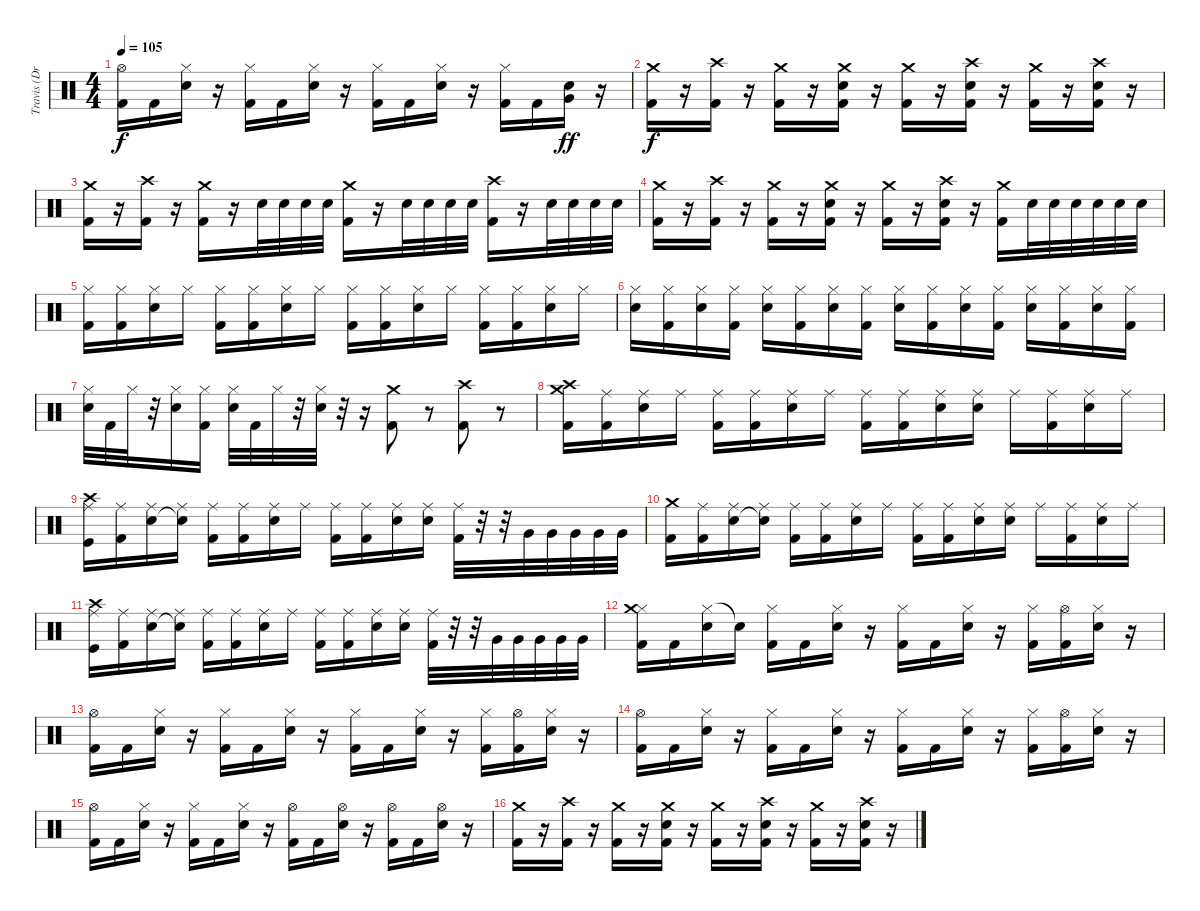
\track ("Travis (Drums)" "Travis (Dr") {instrument percussion}
\staff {score}
\articulation defaults
\ts (4 4)
\tempo 105
\clef neutral
\ks c
("Hi-Hat (open)" "Kick (hit) 2").16{dy f} "Kick (hit) 2".16 ("Hi-Hat (closed)" "Electric Snare (hit)").16 r.16 ("Hi-Hat (closed)" "Kick (hit) 2").16 "Kick (hit) 2".16 ("Hi-Hat (closed)" "Electric Snare (hit)").16 r.16 ("Hi-Hat (closed)" "Kick (hit) 2").16 "Kick (hit) 2".16 ("Hi-Hat (closed)" "Electric Snare (hit)").16 r.16 ("Hi-Hat (closed)" "Kick (hit) 2").16 "Kick (hit) 2".16 ("Electric Snare (hit)" "Very Low Tom (hit)").16{dy ff} r.16 |
("Crash medium (hit)" "Kick (hit) 2").16{dy f} r.16 ("Crash high (hit)" "Kick (hit) 2").16 r.16 ("Crash medium (hit)" "Kick (hit) 2").16 r.16 ("Electric Snare (hit)" "Kick (hit) 2" "Crash medium (hit)").16 r.16 ("Crash medium (hit)" "Kick (hit) 2").16 r.16 ("Electric Snare (hit)" "Kick (hit) 2" "Crash high (hit)").16 r.16 ("Crash medium (hit)" "Kick (hit) 2").16 r.16 ("Electric Snare (hit)" "Kick (hit) 2" "Crash high (hit)").16 r.16 |
("Crash medium (hit)" "Kick (hit) 2").16 r.16 ("Crash high (hit)" "Kick (hit) 2").16 r.16 ("Crash medium (hit)" "Kick (hit) 2").16 r.16 "Electric Snare (hit)".32 "Electric Snare (hit)".32 "Electric Snare (hit)".32 "Electric Snare (hit)".32 ("Kick (hit) 2" "Crash medium (hit)").16 r.16 "Electric Snare (hit)".32 "Electric Snare (hit)".32 "Electric Snare (hit)".32 "Electric Snare (hit)".32 ("Kick (hit) 2" "Crash high (hit)").16 r.16 "Electric Snare (hit)".32 "Electric Snare (hit)".32 "Electric Snare (hit)".32 "Electric Snare (hit)".32 |
("Crash medium (hit)" "Kick (hit) 2").16 r.16 ("Crash high (hit)" "Kick (hit) 2").16 r.16 ("Crash medium (hit)" "Kick (hit) 2").16 r.16 ("Electric Snare (hit)" "Kick (hit) 2" "Crash medium (hit)").16 r.16 ("Crash medium (hit)" "Kick (hit) 2").16 r.16 ("Electric Snare (hit)" "Kick (hit) 2" "Crash high (hit)").16 r.16 ("Crash medium (hit)" "Kick (hit) 2").16 "Electric Snare (hit)".32 "Electric Snare (hit)".32 "Electric Snare (hit)".32 "Electric Snare (hit)".32 "Electric Snare (hit)".32 "Electric Snare (hit)".32 |
("Hi-Hat (closed)" "Kick (hit) 2").16 ("Hi-Hat (closed)" "Kick (hit) 2").16 ("Hi-Hat (closed)" "Electric Snare (hit)").16 "Hi-Hat (closed)".16 ("Hi-Hat (closed)" "Kick (hit) 2").16 ("Hi-Hat (closed)" "Kick (hit) 2").16 ("Hi-Hat (closed)" "Electric Snare (hit)").16 "Hi-Hat (closed)".16 ("Hi-Hat (closed)" "Kick (hit) 2").16 ("Hi-Hat (closed)" "Kick (hit) 2").16 ("Hi-Hat (closed)" "Electric Snare (hit)").16 "Hi-Hat (closed)".16 ("Hi-Hat (closed)" "Kick (hit) 2").16 ("Hi-Hat (closed)" "Kick (hit) 2").16 ("Hi-Hat (closed)" "Electric Snare (hit)").16 "Hi-Hat (closed)".16 |
("Hi-Hat (closed)" "Electric Snare (hit)").16 ("Hi-Hat (closed)" "Kick (hit) 2").16 ("Hi-Hat (closed)" "Electric Snare (hit)").16 ("Hi-Hat (closed)" "Kick (hit) 2").16 ("Hi-Hat (closed)" "Electric Snare (hit)").16 ("Hi-Hat (closed)" "Kick (hit) 2").16 ("Hi-Hat (closed)" "Electric Snare (hit)").16 ("Hi-Hat (closed)" "Kick (hit) 2").16 ("Hi-Hat (closed)" "Electric Snare (hit)").16 ("Hi-Hat (closed)" "Kick (hit) 2").16 ("Hi-Hat (closed)" "Electric Snare (hit)").16 ("Hi-Hat (closed)" "Kick (hit) 2").16 ("Hi-Hat (closed)" "Electric Snare (hit)").16 ("Hi-Hat (closed)" "Kick (hit) 2").16 ("Hi-Hat (closed)" "Electric Snare (hit)").16 ("Hi-Hat (closed)" "Kick (hit) 2").16 |
("Hi-Hat (closed)" "Electric Snare (hit)").32 "Kick (hit) 2".32 "Hi-Hat (closed)".32 r.32 ("Hi-Hat (closed)" "Electric Snare (hit)").16 ("Hi-Hat (closed)" "Kick (hit) 2").16 ("Hi-Hat (closed)" "Electric Snare (hit)").32 "Kick (hit) 2".32 "Hi-Hat (closed)".32 r.32 ("Hi-Hat (closed)" "Electric Snare (hit)").32 r.32 r.16 ("Crash medium (hit)" "Kick (hit) 2").8 r.8 ("Crash high (hit)" "Kick (hit) 2").8 r.8 |
("Kick (hit) 2" "Crash medium (hit)" "Crash high (hit)").16 ("Ride (middle)" "Kick (hit) 2").16 ("Ride (middle)" "Snare (hit) 2").16 "Ride (middle)".16 ("Ride (middle)" "Kick (hit) 2").16 ("Ride (middle)" "Kick (hit) 2").16 ("Ride (middle)" "Snare (hit) 2").16 "Ride (middle)".16 ("Ride (middle)" "Kick (hit) 2").16 ("Ride (middle)" "Kick (hit) 2").16 ("Ride (middle)" "Snare (hit) 2").16 ("Ride (middle)" "Snare (hit) 2").16 "Ride (middle)".16 ("Ride (middle)" "Kick (hit) 2").16 ("Ride (middle)" "Snare (hit) 2").16 "Ride (middle)".16 |
("Ride (middle)" "Kick (hit)" "Crash high (hit)").16 ("Ride (middle)" "Kick (hit) 2").16 ("Ride (middle)" "Snare (hit) 2").16 ("Ride (middle)" "Snare (hit)"{t}).16 ("Ride (middle)" "Kick (hit) 2").16 ("Ride (middle)" "Kick (hit) 2").16 ("Ride (middle)" "Snare (hit) 2").16 "Ride (middle)".16 ("Ride (middle)" "Kick (hit) 2").16 ("Ride (middle)" "Kick (hit) 2").16 ("Ride (middle)" "Snare (hit) 2").16 ("Ride (middle)" "Snare (hit) 2").16 ("Ride (middle)" "Kick (hit) 2").32 r.32 r.32 "Very Low Tom (hit)".32 "Very Low Tom (hit)".32 "Very Low Tom (hit)".32 "Very Low Tom (hit)".32 "Very Low Tom (hit)".32 |
("Kick (hit) 2" "Crash medium (hit)").16 ("Ride (middle)" "Kick (hit) 2").16 ("Ride (middle)" "Snare (hit) 2").16 ("Ride (middle)" "Snare (hit)"{t}).16 ("Ride (middle)" "Kick (hit) 2").16 ("Ride (middle)" "Kick (hit) 2").16 ("Ride (middle)" "Snare (hit) 2").16 "Ride (middle)".16 ("Ride (middle)" "Kick (hit) 2").16 ("Ride (middle)" "Kick (hit) 2").16 ("Ride (middle)" "Snare (hit) 2").16 ("Ride (middle)" "Snare (hit) 2").16 "Ride (middle)".16 ("Ride (middle)" "Kick (hit) 2").16 ("Ride (middle)" "Snare (hit) 2").16 "Ride (middle)".16 |
("Ride (middle)" "Kick (hit)" "Crash high (hit)").16 ("Ride (middle)" "Kick (hit) 2").16 ("Ride (middle)" "Snare (hit) 2").16 ("Ride (middle)" "Snare (hit)"{t}).16 ("Ride (middle)" "Kick (hit) 2").16 ("Ride (middle)" "Kick (hit) 2").16 ("Ride (middle)" "Snare (hit) 2").16 "Ride (middle)".16 ("Ride (middle)" "Kick (hit) 2").16 ("Ride (middle)" "Kick (hit) 2").16 ("Ride (middle)" "Snare (hit) 2").16 ("Ride (middle)" "Snare (hit) 2").16 ("Ride (middle)" "Kick (hit) 2").32 r.32 r.32 "Very Low Tom (hit)".32 "Very Low Tom (hit)".32 "Very Low Tom (hit)".32 "Very Low Tom (hit)".32 "Very Low Tom (hit)".32 |
("Hi-Hat (closed)" "Kick (hit) 2" "Crash medium (hit)").16 "Kick (hit) 2".16 ("Hi-Hat (closed)" "Snare (hit) 2").16 "Snare (hit)"{t}.16 ("Hi-Hat (closed)" "Kick (hit) 2").16 "Kick (hit) 2".16 ("Hi-Hat (closed)" "Snare (hit) 2").16 r.16 ("Hi-Hat (closed)" "Kick (hit) 2").16 "Kick (hit) 2".16 ("Hi-Hat (closed)" "Snare (hit) 2").16 r.16 ("Hi-Hat (closed)" "Kick (hit) 2").16 ("Hi-Hat (open)" "Kick (hit) 2").16 ("Hi-Hat (closed)" "Snare (hit) 2").16 r.16 |
("Hi-Hat (open)" "Kick (hit) 2").16 "Kick (hit) 2".16 ("Hi-Hat (closed)" "Snare (hit) 2").16 r.16 ("Hi-Hat (closed)" "Kick (hit) 2").16 "Kick (hit) 2".16 ("Hi-Hat (closed)" "Snare (hit) 2").16 r.16 ("Hi-Hat (closed)" "Kick (hit) 2").16 "Kick (hit) 2".16 ("Hi-Hat (closed)" "Snare (hit) 2").16 r.16 ("Hi-Hat (closed)" "Kick (hit) 2").16 ("Hi-Hat (open)" "Kick (hit) 2").16 ("Hi-Hat (closed)" "Snare (hit) 2").16 r.16 |
("Hi-Hat (open)" "Kick (hit) 2").16 "Kick (hit) 2".16 ("Hi-Hat (closed)" "Snare (hit) 2").16 r.16 ("Hi-Hat (closed)" "Kick (hit) 2").16 "Kick (hit) 2".16 ("Hi-Hat (closed)" "Snare (hit) 2").16 r.16 ("Hi-Hat (closed)" "Kick (hit) 2").16 "Kick (hit) 2".16 ("Hi-Hat (closed)" "Snare (hit) 2").16 r.16 ("Hi-Hat (closed)" "Kick (hit) 2").16 ("Hi-Hat (open)" "Kick (hit) 2").16 ("Hi-Hat (closed)" "Snare (hit) 2").16 r.16 |
("Hi-Hat (open)" "Kick (hit) 2").16 "Kick (hit) 2".16 ("Hi-Hat (closed)" "Snare (hit) 2").16 r.16 ("Hi-Hat (closed)" "Kick (hit) 2").16 "Kick (hit) 2".16 ("Hi-Hat (closed)" "Snare (hit) 2").16 r.16 ("Hi-Hat (open)" "Kick (hit) 2").16 "Kick (hit) 2".16 ("Hi-Hat (open)" "Snare (hit) 2").16 r.16 ("Hi-Hat (open)" "Kick (hit) 2").16 "Kick (hit) 2".16 ("Hi-Hat (open)" "Snare (hit) 2").16 r.16 |
("Crash medium (hit)" "Kick (hit) 2").16 r.16 ("Crash high (hit)" "Kick (hit) 2").16 r.16 ("Crash medium (hit)" "Kick (hit) 2").16 r.16 ("Electric Snare (hit)" "Kick (hit) 2" "Crash medium (hit)").16 r.16 ("Crash medium (hit)" "Kick (hit) 2").16 r.16 ("Electric Snare (hit)" "Kick (hit) 2" "Crash high (hit)").16 r.16 ("Crash medium (hit)" "Kick (hit) 2").16 r.16 ("Electric Snare (hit)" "Kick (hit) 2" "Crash high (hit)").16 r.16
